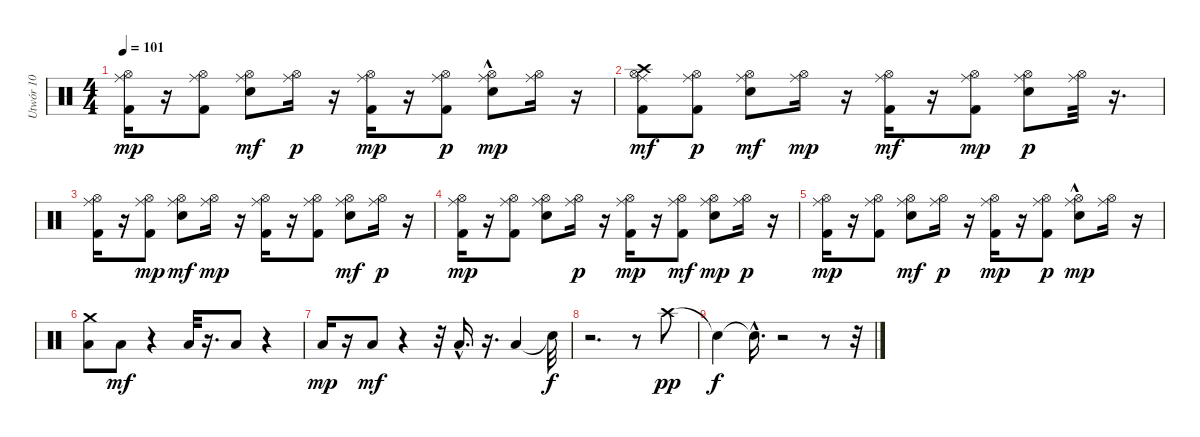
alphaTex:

\track ("Utwór 10" "Utwór 10") {instrument percussion}
\staff {score}
\articulation defaults
\ts (4 4)
\tempo 101
\clef neutral
\ks c
("Hi-Hat (open)" "Kick (hit) 2" "Ride (middle)").16{dy mp} r.16 ("Kick (hit) 2" "Hi-Hat (open)" "Ride (middle)").8 ("Hi-Hat (open)" "Ride (middle)" "Snare (hit) 2").8{dy mf} ("Hi-Hat (open)" "Ride (middle)").16{dy p} r.16 ("Ride (middle)" "Kick (hit) 2" "Hi-Hat (open)").16{dy mp} r.16 ("Ride (middle)" "Hi-Hat (open)" "Kick (hit) 2").8{dy p} ("Ride (middle)" "Hi-Hat (open)" "Snare (hit) 2"{hac}).8{dy mp} ("Hi-Hat (open)" "Ride (middle)").16 r.16 |
("Hi-Hat (open)" "Ride (middle)" "Crash high (hit)" "Kick (hit) 2").8{dy mf} ("Kick (hit) 2" "Ride (middle)" "Hi-Hat (open)").8{dy p} ("Hi-Hat (open)" "Ride (middle)" "Snare (hit) 2").8{dy mf} ("Hi-Hat (open)" "Ride (middle)").16{dy mp} r.16 ("Ride (middle)" "Hi-Hat (open)" "Kick (hit) 2").16{dy mf} r.16 ("Hi-Hat (open)" "Ride (middle)" "Kick (hit) 2").8{dy mp} ("Hi-Hat (open)" "Ride (middle)" "Snare (hit) 2").8{dy p} ("Ride (middle)" "Hi-Hat (open)").32 r.16{d} |
("Kick (hit) 2" "Hi-Hat (open)" "Ride (middle)").16 r.16 ("Kick (hit) 2" "Hi-Hat (open)" "Ride (middle)").8{dy mp} ("Hi-Hat (open)" "Ride (middle)" "Snare (hit) 2").8{dy mf} ("Ride (middle)" "Hi-Hat (open)").16{dy mp} r.16 ("Ride (middle)" "Kick (hit) 2" "Hi-Hat (open)").16 r.16 ("Hi-Hat (open)" "Kick (hit) 2" "Ride (middle)").8 ("Hi-Hat (open)" "Snare (hit) 2" "Ride (middle)").8{dy mf} ("Hi-Hat (open)" "Ride (middle)").16{dy p} r.16 |
("Kick (hit) 2" "Ride (middle)" "Hi-Hat (open)").16{dy mp} r.16 ("Hi-Hat (open)" "Kick (hit) 2" "Ride (middle)").8 ("Ride (middle)" "Hi-Hat (open)" "Snare (hit) 2").8 ("Hi-Hat (open)" "Ride (middle)").16{dy p} r.16 ("Ride (middle)" "Kick (hit) 2" "Hi-Hat (open)").16{dy mp} r.16 ("Hi-Hat (open)" "Kick (hit) 2" "Ride (middle)").8{dy mf} ("Ride (middle)" "Snare (hit) 2" "Hi-Hat (open)").8{dy mp} ("Ride (middle)" "Hi-Hat (open)").16{dy p} r.16 |
("Kick (hit) 2" "Ride (middle)" "Hi-Hat (open)").16{dy mp} r.16 ("Kick (hit) 2" "Ride (middle)" "Hi-Hat (open)").8 ("Hi-Hat (open)" "Snare (hit) 2" "Ride (middle)").8{dy mf} ("Hi-Hat (open)" "Ride (middle)").16{dy p} r.16 ("Ride (middle)" "Kick (hit) 2" "Hi-Hat (open)").16{dy mp} r.16 ("Hi-Hat (open)" "Ride (middle)" "Kick (hit) 2").8{dy p} ("Ride (middle)" "Hi-Hat (open)" "Snare (hit) 2"{hac}).8{dy mp} ("Ride (middle)" "Hi-Hat (open)").16 r.16 |
("Crash medium (hit)" "Low Floor Tom (hit)").8 "Low Floor Tom (hit)".8{dy mf} r.4 "Low Floor Tom (hit)".32 r.16{d} "Low Floor Tom (hit)".8 r.4 |
"Low Floor Tom (hit)".16{dy mp} r.16 "Low Floor Tom (hit)".8{dy mf} r.4 r.32 "Low Floor Tom (hit)"{hac}.16{d} r.16{d} "Low Floor Tom (hit)".4 "Snare (hit)"{t}.32{dy f} |
r.2{d} r.8 "Crash high (hit)".8{dy pp} |
"Snare (hit)"{t}.4{dy f} "Snare (hit)"{hac t}.16{d} r.2 r.8 r.32
